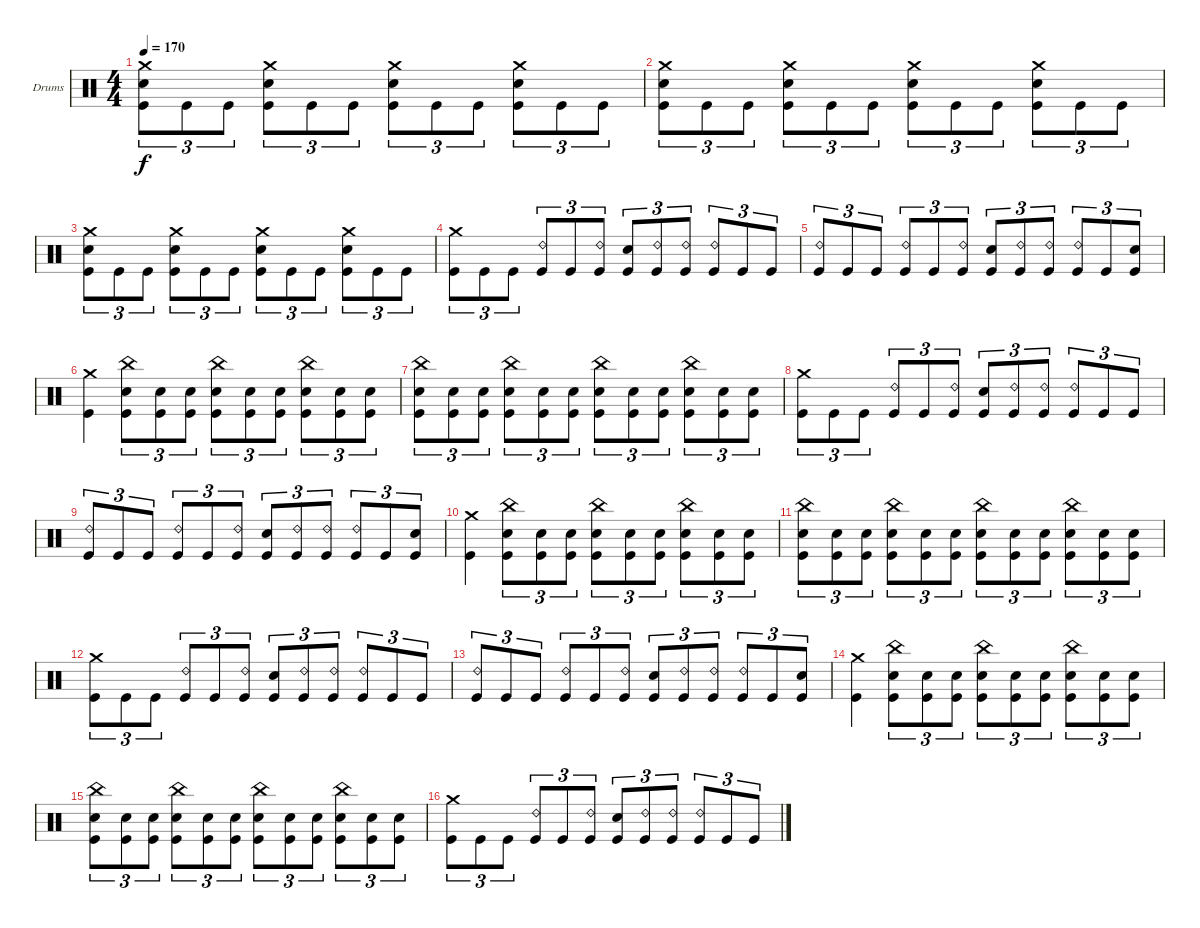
\bracketExtendMode groupsimilarinstruments
\firstSystemTrackNameOrientation horizontal
\otherSystemsTrackNameOrientation horizontal
\track ("Drumkit" "Drums") {instrument percussion}
\staff {score}
\articulation defaults
\ts (4 4)
\tempo 170
\clef neutral
\ks c
("Crash medium (hit)" "Snare (hit) 2" "Kick (hit)").8{tu (3 2) dy f} "Kick (hit)".8{tu (3 2)} "Kick (hit)".8{tu (3 2)} ("Crash medium (hit)" "Snare (hit) 2" "Kick (hit)").8{tu (3 2)} "Kick (hit)".8{tu (3 2)} "Kick (hit)".8{tu (3 2)} ("Crash medium (hit)" "Snare (hit) 2" "Kick (hit)").8{tu (3 2)} "Kick (hit)".8{tu (3 2)} "Kick (hit)".8{tu (3 2)} ("Crash medium (hit)" "Snare (hit) 2" "Kick (hit)").8{tu (3 2)} "Kick (hit)".8{tu (3 2)} "Kick (hit)".8{tu (3 2)} |
("Crash medium (hit)" "Snare (hit) 2" "Kick (hit)").8{tu (3 2)} "Kick (hit)".8{tu (3 2)} "Kick (hit)".8{tu (3 2)} ("Crash medium (hit)" "Snare (hit) 2" "Kick (hit)").8{tu (3 2)} "Kick (hit)".8{tu (3 2)} "Kick (hit)".8{tu (3 2)} ("Crash medium (hit)" "Snare (hit) 2" "Kick (hit)").8{tu (3 2)} "Kick (hit)".8{tu (3 2)} "Kick (hit)".8{tu (3 2)} ("Crash medium (hit)" "Snare (hit) 2" "Kick (hit)").8{tu (3 2)} "Kick (hit)".8{tu (3 2)} "Kick (hit)".8{tu (3 2)} |
("Crash medium (hit)" "Snare (hit) 2" "Kick (hit)").8{tu (3 2)} "Kick (hit)".8{tu (3 2)} "Kick (hit)".8{tu (3 2)} ("Crash medium (hit)" "Snare (hit) 2" "Kick (hit)").8{tu (3 2)} "Kick (hit)".8{tu (3 2)} "Kick (hit)".8{tu (3 2)} ("Crash medium (hit)" "Snare (hit) 2" "Kick (hit)").8{tu (3 2)} "Kick (hit)".8{tu (3 2)} "Kick (hit)".8{tu (3 2)} ("Crash medium (hit)" "Snare (hit) 2" "Kick (hit)").8{tu (3 2)} "Kick (hit)".8{tu (3 2)} "Kick (hit)".8{tu (3 2)} |
("Crash medium (hit)" "Kick (hit)").8{tu (3 2)} "Kick (hit)".8{tu (3 2)} "Kick (hit)".8{tu (3 2)} ("Ride (bell) 2" "Kick (hit)").8{tu (3 2)} "Kick (hit)".8{tu (3 2)} ("Ride (bell) 2" "Kick (hit)").8{tu (3 2)} ("Snare (hit) 2" "Kick (hit)").8{tu (3 2)} ("Ride (bell) 2" "Kick (hit)").8{tu (3 2)} ("Ride (bell) 2" "Kick (hit)").8{tu (3 2)} ("Ride (bell) 2" "Kick (hit)").8{tu (3 2)} "Kick (hit)".8{tu (3 2)} "Kick (hit)".8{tu (3 2)} |
("Ride (bell) 2" "Kick (hit)").8{tu (3 2)} "Kick (hit)".8{tu (3 2)} "Kick (hit)".8{tu (3 2)} ("Ride (bell) 2" "Kick (hit)").8{tu (3 2)} "Kick (hit)".8{tu (3 2)} ("Ride (bell) 2" "Kick (hit)").8{tu (3 2)} ("Snare (hit) 2" "Kick (hit)").8{tu (3 2)} ("Ride (bell) 2" "Kick (hit)").8{tu (3 2)} ("Ride (bell) 2" "Kick (hit)").8{tu (3 2)} ("Ride (bell) 2" "Kick (hit)").8{tu (3 2)} "Kick (hit)".8{tu (3 2)} ("Snare (hit) 2" "Kick (hit)").8{tu (3 2)} |
("Crash medium (hit)" "Kick (hit)").4 ("China (hit)" "Snare (hit) 2" "Kick (hit)").8{tu (3 2)} ("Snare (hit) 2" "Kick (hit)").8{tu (3 2)} ("Snare (hit) 2" "Kick (hit)").8{tu (3 2)} ("China (hit)" "Snare (hit) 2" "Kick (hit)").8{tu (3 2)} ("Snare (hit) 2" "Kick (hit)").8{tu (3 2)} ("Snare (hit) 2" "Kick (hit)").8{tu (3 2)} ("China (hit)" "Snare (hit) 2" "Kick (hit)").8{tu (3 2)} ("Snare (hit) 2" "Kick (hit)").8{tu (3 2)} ("Snare (hit) 2" "Kick (hit)").8{tu (3 2)} |
("China (hit)" "Snare (hit) 2" "Kick (hit)").8{tu (3 2)} ("Snare (hit) 2" "Kick (hit)").8{tu (3 2)} ("Snare (hit) 2" "Kick (hit)").8{tu (3 2)} ("China (hit)" "Snare (hit) 2" "Kick (hit)").8{tu (3 2)} ("Snare (hit) 2" "Kick (hit)").8{tu (3 2)} ("Snare (hit) 2" "Kick (hit)").8{tu (3 2)} ("China (hit)" "Snare (hit) 2" "Kick (hit)").8{tu (3 2)} ("Snare (hit) 2" "Kick (hit)").8{tu (3 2)} ("Snare (hit) 2" "Kick (hit)").8{tu (3 2)} ("China (hit)" "Snare (hit) 2" "Kick (hit)").8{tu (3 2)} ("Snare (hit) 2" "Kick (hit)").8{tu (3 2)} ("Snare (hit) 2" "Kick (hit)").8{tu (3 2)} |
("Crash medium (hit)" "Kick (hit)").8{tu (3 2)} "Kick (hit)".8{tu (3 2)} "Kick (hit)".8{tu (3 2)} ("Ride (bell) 2" "Kick (hit)").8{tu (3 2)} "Kick (hit)".8{tu (3 2)} ("Ride (bell) 2" "Kick (hit)").8{tu (3 2)} ("Snare (hit) 2" "Kick (hit)").8{tu (3 2)} ("Ride (bell) 2" "Kick (hit)").8{tu (3 2)} ("Ride (bell) 2" "Kick (hit)").8{tu (3 2)} ("Ride (bell) 2" "Kick (hit)").8{tu (3 2)} "Kick (hit)".8{tu (3 2)} "Kick (hit)".8{tu (3 2)} |
("Ride (bell) 2" "Kick (hit)").8{tu (3 2)} "Kick (hit)".8{tu (3 2)} "Kick (hit)".8{tu (3 2)} ("Ride (bell) 2" "Kick (hit)").8{tu (3 2)} "Kick (hit)".8{tu (3 2)} ("Ride (bell) 2" "Kick (hit)").8{tu (3 2)} ("Snare (hit) 2" "Kick (hit)").8{tu (3 2)} ("Ride (bell) 2" "Kick (hit)").8{tu (3 2)} ("Ride (bell) 2" "Kick (hit)").8{tu (3 2)} ("Ride (bell) 2" "Kick (hit)").8{tu (3 2)} "Kick (hit)".8{tu (3 2)} ("Snare (hit) 2" "Kick (hit)").8{tu (3 2)} |
("Crash medium (hit)" "Kick (hit)").4 ("China (hit)" "Snare (hit) 2" "Kick (hit)").8{tu (3 2)} ("Snare (hit) 2" "Kick (hit)").8{tu (3 2)} ("Snare (hit) 2" "Kick (hit)").8{tu (3 2)} ("China (hit)" "Snare (hit) 2" "Kick (hit)").8{tu (3 2)} ("Snare (hit) 2" "Kick (hit)").8{tu (3 2)} ("Snare (hit) 2" "Kick (hit)").8{tu (3 2)} ("China (hit)" "Snare (hit) 2" "Kick (hit)").8{tu (3 2)} ("Snare (hit) 2" "Kick (hit)").8{tu (3 2)} ("Snare (hit) 2" "Kick (hit)").8{tu (3 2)} |
("China (hit)" "Snare (hit) 2" "Kick (hit)").8{tu (3 2)} ("Snare (hit) 2" "Kick (hit)").8{tu (3 2)} ("Snare (hit) 2" "Kick (hit)").8{tu (3 2)} ("China (hit)" "Snare (hit) 2" "Kick (hit)").8{tu (3 2)} ("Snare (hit) 2" "Kick (hit)").8{tu (3 2)} ("Snare (hit) 2" "Kick (hit)").8{tu (3 2)} ("China (hit)" "Snare (hit) 2" "Kick (hit)").8{tu (3 2)} ("Snare (hit) 2" "Kick (hit)").8{tu (3 2)} ("Snare (hit) 2" "Kick (hit)").8{tu (3 2)} ("China (hit)" "Snare (hit) 2" "Kick (hit)").8{tu (3 2)} ("Snare (hit) 2" "Kick (hit)").8{tu (3 2)} ("Snare (hit) 2" "Kick (hit)").8{tu (3 2)} |
("Crash medium (hit)" "Kick (hit)").8{tu (3 2)} "Kick (hit)".8{tu (3 2)} "Kick (hit)".8{tu (3 2)} ("Ride (bell) 2" "Kick (hit)").8{tu (3 2)} "Kick (hit)".8{tu (3 2)} ("Ride (bell) 2" "Kick (hit)").8{tu (3 2)} ("Snare (hit) 2" "Kick (hit)").8{tu (3 2)} ("Ride (bell) 2" "Kick (hit)").8{tu (3 2)} ("Ride (bell) 2" "Kick (hit)").8{tu (3 2)} ("Ride (bell) 2" "Kick (hit)").8{tu (3 2)} "Kick (hit)".8{tu (3 2)} "Kick (hit)".8{tu (3 2)} |
("Ride (bell) 2" "Kick (hit)").8{tu (3 2)} "Kick (hit)".8{tu (3 2)} "Kick (hit)".8{tu (3 2)} ("Ride (bell) 2" "Kick (hit)").8{tu (3 2)} "Kick (hit)".8{tu (3 2)} ("Ride (bell) 2" "Kick (hit)").8{tu (3 2)} ("Snare (hit) 2" "Kick (hit)").8{tu (3 2)} ("Ride (bell) 2" "Kick (hit)").8{tu (3 2)} ("Ride (bell) 2" "Kick (hit)").8{tu (3 2)} ("Ride (bell) 2" "Kick (hit)").8{tu (3 2)} "Kick (hit)".8{tu (3 2)} ("Snare (hit) 2" "Kick (hit)").8{tu (3 2)} |
("Crash medium (hit)" "Kick (hit)").4 ("China (hit)" "Snare (hit) 2" "Kick (hit)").8{tu (3 2)} ("Snare (hit) 2" "Kick (hit)").8{tu (3 2)} ("Snare (hit) 2" "Kick (hit)").8{tu (3 2)} ("China (hit)" "Snare (hit) 2" "Kick (hit)").8{tu (3 2)} ("Snare (hit) 2" "Kick (hit)").8{tu (3 2)} ("Snare (hit) 2" "Kick (hit)").8{tu (3 2)} ("China (hit)" "Snare (hit) 2" "Kick (hit)").8{tu (3 2)} ("Snare (hit) 2" "Kick (hit)").8{tu (3 2)} ("Snare (hit) 2" "Kick (hit)").8{tu (3 2)} |
("China (hit)" "Snare (hit) 2" "Kick (hit)").8{tu (3 2)} ("Snare (hit) 2" "Kick (hit)").8{tu (3 2)} ("Snare (hit) 2" "Kick (hit)").8{tu (3 2)} ("China (hit)" "Snare (hit) 2" "Kick (hit)").8{tu (3 2)} ("Snare (hit) 2" "Kick (hit)").8{tu (3 2)} ("Snare (hit) 2" "Kick (hit)").8{tu (3 2)} ("China (hit)" "Snare (hit) 2" "Kick (hit)").8{tu (3 2)} ("Snare (hit) 2" "Kick (hit)").8{tu (3 2)} ("Snare (hit) 2" "Kick (hit)").8{tu (3 2)} ("China (hit)" "Snare (hit) 2" "Kick (hit)").8{tu (3 2)} ("Snare (hit) 2" "Kick (hit)").8{tu (3 2)} ("Snare (hit) 2" "Kick (hit)").8{tu (3 2)} |
("Crash medium (hit)" "Kick (hit)").8{tu (3 2)} "Kick (hit)".8{tu (3 2)} "Kick (hit)".8{tu (3 2)} ("Ride (bell) 2" "Kick (hit)").8{tu (3 2)} "Kick (hit)".8{tu (3 2)} ("Ride (bell) 2" "Kick (hit)").8{tu (3 2)} ("Snare (hit) 2" "Kick (hit)").8{tu (3 2)} ("Ride (bell) 2" "Kick (hit)").8{tu (3 2)} ("Ride (bell) 2" "Kick (hit)").8{tu (3 2)} ("Ride (bell) 2" "Kick (hit)").8{tu (3 2)} "Kick (hit)".8{tu (3 2)} "Kick (hit)".8{tu (3 2)}
